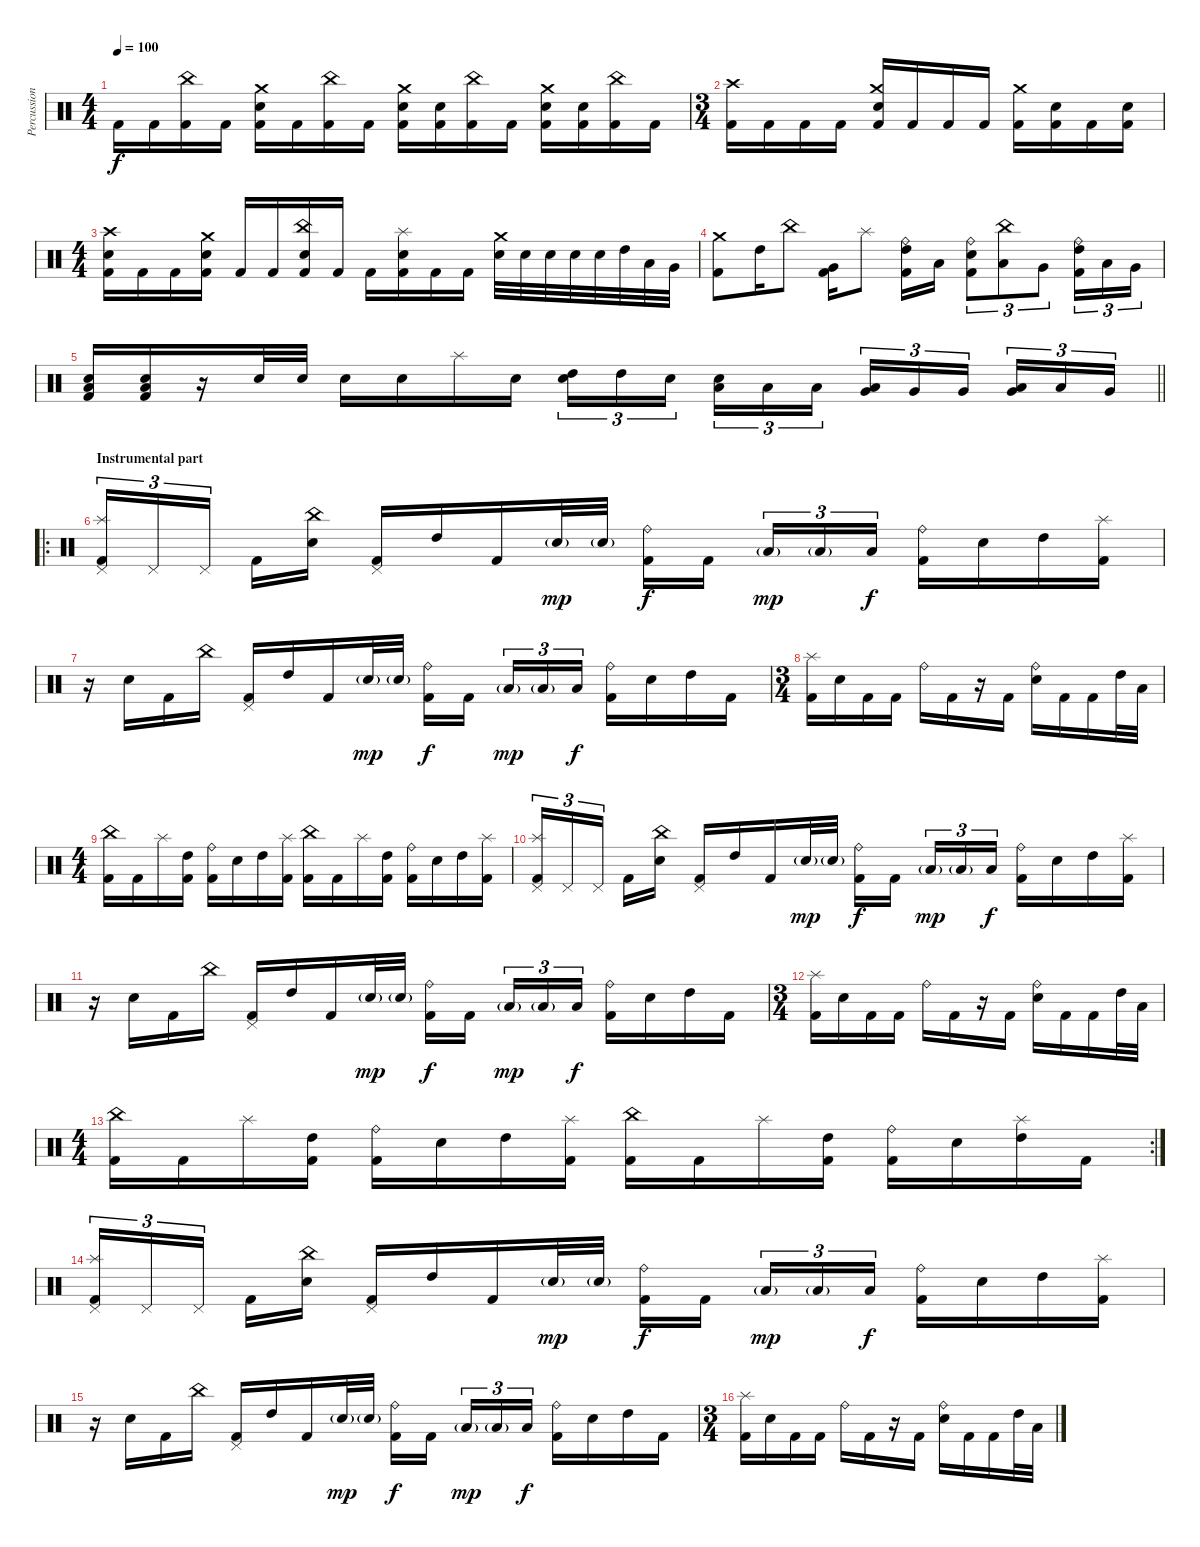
\track ("Percussion" "Percussion") {mute instrument percussion}
\staff {score}
\articulation defaults
\ts (4 4)
\tempo 100
\clef neutral
\ks c "Kick (hit) 2".16{dy f} "Kick (hit) 2".16
("China (hit)" "Kick (hit) 2").16 "Kick (hit) 2".16 ("Crash medium (hit)" "Electric Snare (hit)" "Kick (hit) 2").16 "Kick (hit) 2".16 ("China (hit)" "Kick (hit) 2").16 "Kick (hit) 2".16 ("Crash medium (hit)" "Electric Snare (hit)" "Kick (hit) 2").16 ("Electric Snare (hit)" "Kick (hit) 2").16 ("China (hit)" "Kick (hit) 2").16 "Kick (hit) 2".16 ("Crash medium (hit)" "Electric Snare (hit)" "Kick (hit) 2").16 ("Electric Snare (hit)" "Kick (hit) 2").16 ("China (hit)" "Kick (hit) 2").16 "Kick (hit) 2".16 |
\ts (3 4)
("Crash high (hit)" "Kick (hit) 2").16 "Kick (hit) 2".16 "Kick (hit) 2".16 "Kick (hit) 2".16 ("Crash medium (hit)" "Electric Snare (hit)" "Kick (hit) 2").16 "Kick (hit) 2".16 "Kick (hit) 2".16 "Kick (hit) 2".16 ("Crash medium (hit)" "Kick (hit) 2").16 ("Electric Snare (hit)" "Kick (hit) 2").16 "Kick (hit) 2".16 ("Electric Snare (hit)" "Kick (hit) 2").16 |
\ts (4 4)
("Crash high (hit)" "Electric Snare (hit)" "Kick (hit) 2").16 "Kick (hit) 2".16 "Kick (hit) 2".16 ("Crash medium (hit)" "Electric Snare (hit)" "Kick (hit) 2").16 "Kick (hit) 2".16 "Kick (hit) 2".16 ("China (hit)" "Electric Snare (hit)" "Kick (hit) 2").16 "Kick (hit) 2".16 "Kick (hit) 2".16 ("Splash (hit)" "Electric Snare (hit)" "Kick (hit) 2").16 "Kick (hit) 2".16 "Kick (hit) 2".16 ("Crash medium (hit)" "Electric Snare (hit)").32 "Electric Snare (hit)".32 "Electric Snare (hit)".32 "Electric Snare (hit)".32 "Electric Snare (hit)".32 "High Tom (hit)".32 "Low Tom (hit)".32 "Very Low Tom (hit)".32 |
("Crash medium (hit)" "Kick (hit) 2").8 "High Tom (hit)".16 "China (hit)".8 ("Very Low Tom (hit)" "Kick (hit) 2").16 "Splash (hit)".8 ("Ride (bell)" "High Tom (hit)" "Kick (hit) 2").16 "Low Tom (hit)".16 ("Ride (bell)" "Electric Snare (hit)" "Kick (hit) 2").8{tu (3 2)} ("China (hit)" "Low Tom (hit)").8{tu (3 2)} "Very Low Tom (hit)".8{tu (3 2)} ("Ride (bell)" "High Tom (hit)" "Kick (hit) 2").16{tu (3 2)} "Low Tom (hit)".16{tu (3 2)} "Very Low Tom (hit)".16{tu (3 2)} |
\barLineRight lightlight
("Electric Snare (hit)" "Low Tom (hit)" "Kick (hit) 2").16 ("Electric Snare (hit)" "Low Tom (hit)" "Kick (hit) 2").16 r.16 "Electric Snare (hit)".32 "Electric Snare (hit)".32 "Electric Snare (hit)".16 "Electric Snare (hit)".16 "Splash (hit)".16 "Electric Snare (hit)".16 ("High Tom (hit)" "Electric Snare (hit)").16{tu (3 2)} "High Tom (hit)".16{tu (3 2)} "Electric Snare (hit)".16{tu (3 2) beam splitsecondary} ("Low Tom (hit)" "Electric Snare (hit)").16{tu (3 2)} "Low Tom (hit)".16{tu (3 2)} "Low Tom (hit)".16{tu (3 2)} ("Very Low Tom (hit)" "Low Tom (hit)").16{tu (3 2)} "Very Low Tom (hit)".16{tu (3 2)} "Very Low Tom (hit)".16{tu (3 2) beam splitsecondary} ("Low Floor Tom (hit)" "Very Low Tom (hit)").16{tu (3 2)} "Low Floor Tom (hit)".16{tu (3 2)} "Very Low Tom (hit)".16{tu (3 2)} |
\ro
\section ("" "Instrumental part")
("Pedal Hi-Hat (hit)" "Splash (hit)" "Kick (hit) 2").16{tu (3 2)} "Pedal Hi-Hat (hit)".16{tu (3 2)} "Pedal Hi-Hat (hit)".16{tu (3 2) beam splitsecondary} "Kick (hit) 2".16 ("China (hit)" "Electric Snare (hit)").16 ("Pedal Hi-Hat (hit)" "Kick (hit) 2").16 "High Tom (hit)".16 "Kick (hit) 2".16 "Electric Snare (hit)"{g}.32{dy mp} "Electric Snare (hit)"{g}.32 ("Ride (bell)" "Kick (hit) 2").16{dy f} "Kick (hit) 2".16{beam splitsecondary} "Low Tom (hit)"{g}.16{tu (3 2) dy mp} "Low Tom (hit)"{g}.16{tu (3 2)} "Low Tom (hit)".16{tu (3 2) dy f} ("Ride (bell)" "Kick (hit) 2").16 "Electric Snare (hit)".16 "High Tom (hit)".16 ("Splash (hit)" "Kick (hit) 2").16 |
r.16 "Electric Snare (hit)".16 "Kick (hit) 2".16 "China (hit)".16 ("Pedal Hi-Hat (hit)" "Kick (hit) 2").16 "High Tom (hit)".16 "Kick (hit) 2".16 "Electric Snare (hit)"{g}.32{dy mp} "Electric Snare (hit)"{g}.32 ("Ride (bell)" "Kick (hit) 2").16{dy f} "Kick (hit) 2".16{beam splitsecondary} "Low Tom (hit)"{g}.16{tu (3 2) dy mp} "Low Tom (hit)"{g}.16{tu (3 2)} "Low Tom (hit)".16{tu (3 2) dy f} ("Ride (bell)" "Kick (hit) 2").16 "Electric Snare (hit)".16 "High Tom (hit)".16 "Kick (hit) 2".16 |
\ts (3 4)
("Splash (hit)" "Kick (hit) 2").16 "Electric Snare (hit)".16 "Kick (hit) 2".16 "Kick (hit) 2".16 "Ride (bell)".16 "Kick (hit) 2".16 r.16 "Kick (hit) 2".16 ("Ride (bell)" "Electric Snare (hit)").16 "Kick (hit) 2".16 "Kick (hit) 2".16 "High Tom (hit)".32 "Low Tom (hit)".32 |
\ts (4 4)
("China (hit)" "Kick (hit) 2").16 "Kick (hit) 2".16 "Splash (hit)".16 ("High Tom (hit)" "Kick (hit) 2").16 ("Ride (bell)" "Kick (hit) 2").16 "Electric Snare (hit)".16 "High Tom (hit)".16 ("Splash (hit)" "Kick (hit) 2").16 ("China (hit)" "Kick (hit) 2").16 "Kick (hit) 2".16 "Splash (hit)".16 ("High Tom (hit)" "Kick (hit) 2").16 ("Ride (bell)" "Kick (hit) 2").16 "Electric Snare (hit)".16 "High Tom (hit)".16 ("Splash (hit)" "Kick (hit) 2").16 |
("Pedal Hi-Hat (hit)" "Splash (hit)" "Kick (hit) 2").16{tu (3 2)} "Pedal Hi-Hat (hit)".16{tu (3 2)} "Pedal Hi-Hat (hit)".16{tu (3 2) beam splitsecondary} "Kick (hit) 2".16 ("China (hit)" "Electric Snare (hit)").16 ("Pedal Hi-Hat (hit)" "Kick (hit) 2").16 "High Tom (hit)".16 "Kick (hit) 2".16 "Electric Snare (hit)"{g}.32{dy mp} "Electric Snare (hit)"{g}.32 ("Ride (bell)" "Kick (hit) 2").16{dy f} "Kick (hit) 2".16{beam splitsecondary} "Low Tom (hit)"{g}.16{tu (3 2) dy mp} "Low Tom (hit)"{g}.16{tu (3 2)} "Low Tom (hit)".16{tu (3 2) dy f} ("Ride (bell)" "Kick (hit) 2").16 "Electric Snare (hit)".16 "High Tom (hit)".16 ("Splash (hit)" "Kick (hit) 2").16 |
r.16 "Electric Snare (hit)".16 "Kick (hit) 2".16 "China (hit)".16 ("Pedal Hi-Hat (hit)" "Kick (hit) 2").16 "High Tom (hit)".16 "Kick (hit) 2".16 "Electric Snare (hit)"{g}.32{dy mp} "Electric Snare (hit)"{g}.32 ("Ride (bell)" "Kick (hit) 2").16{dy f} "Kick (hit) 2".16{beam splitsecondary} "Low Tom (hit)"{g}.16{tu (3 2) dy mp} "Low Tom (hit)"{g}.16{tu (3 2)} "Low Tom (hit)".16{tu (3 2) dy f} ("Ride (bell)" "Kick (hit) 2").16 "Electric Snare (hit)".16 "High Tom (hit)".16 "Kick (hit) 2".16 |
\ts (3 4)
("Splash (hit)" "Kick (hit) 2").16 "Electric Snare (hit)".16 "Kick (hit) 2".16 "Kick (hit) 2".16 "Ride (bell)".16 "Kick (hit) 2".16 r.16 "Kick (hit) 2".16 ("Ride (bell)" "Electric Snare (hit)").16 "Kick (hit) 2".16 "Kick (hit) 2".16 "High Tom (hit)".32 "Low Tom (hit)".32 |
\rc 2
\ts (4 4)
("China (hit)" "Kick (hit) 2").16 "Kick (hit) 2".16 "Splash (hit)".16 ("High Tom (hit)" "Kick (hit) 2").16 ("Ride (bell)" "Kick (hit) 2").16 "Electric Snare (hit)".16 "High Tom (hit)".16 ("Splash (hit)" "Kick (hit) 2").16 ("China (hit)" "Kick (hit) 2").16 "Kick (hit) 2".16 "Splash (hit)".16 ("High Tom (hit)" "Kick (hit) 2").16 ("Ride (bell)" "Kick (hit) 2").16 "Electric Snare (hit)".16 ("Splash (hit)" "High Tom (hit)").16 "Kick (hit) 2".16 |
("Pedal Hi-Hat (hit)" "Splash (hit)" "Kick (hit) 2").16{tu (3 2)} "Pedal Hi-Hat (hit)".16{tu (3 2)} "Pedal Hi-Hat (hit)".16{tu (3 2) beam splitsecondary} "Kick (hit) 2".16 ("China (hit)" "Electric Snare (hit)").16 ("Pedal Hi-Hat (hit)" "Kick (hit) 2").16 "High Tom (hit)".16 "Kick (hit) 2".16 "Electric Snare (hit)"{g}.32{dy mp} "Electric Snare (hit)"{g}.32 ("Ride (bell)" "Kick (hit) 2").16{dy f} "Kick (hit) 2".16{beam splitsecondary} "Low Tom (hit)"{g}.16{tu (3 2) dy mp} "Low Tom (hit)"{g}.16{tu (3 2)} "Low Tom (hit)".16{tu (3 2) dy f} ("Ride (bell)" "Kick (hit) 2").16 "Electric Snare (hit)".16 "High Tom (hit)".16 ("Splash (hit)" "Kick (hit) 2").16 |
r.16 "Electric Snare (hit)".16 "Kick (hit) 2".16 "China (hit)".16 ("Pedal Hi-Hat (hit)" "Kick (hit) 2").16 "High Tom (hit)".16 "Kick (hit) 2".16 "Electric Snare (hit)"{g}.32{dy mp} "Electric Snare (hit)"{g}.32 ("Ride (bell)" "Kick (hit) 2").16{dy f} "Kick (hit) 2".16{beam splitsecondary} "Low Tom (hit)"{g}.16{tu (3 2) dy mp} "Low Tom (hit)"{g}.16{tu (3 2)} "Low Tom (hit)".16{tu (3 2) dy f} ("Ride (bell)" "Kick (hit) 2").16 "Electric Snare (hit)".16 "High Tom (hit)".16 "Kick (hit) 2".16 |
\ts (3 4)
("Splash (hit)" "Kick (hit) 2").16 "Electric Snare (hit)".16 "Kick (hit) 2".16 "Kick (hit) 2".16 "Ride (bell)".16 "Kick (hit) 2".16 r.16 "Kick (hit) 2".16 ("Ride (bell)" "Electric Snare (hit)").16 "Kick (hit) 2".16 "Kick (hit) 2".16 "High Tom (hit)".32 "Low Tom (hit)".32
